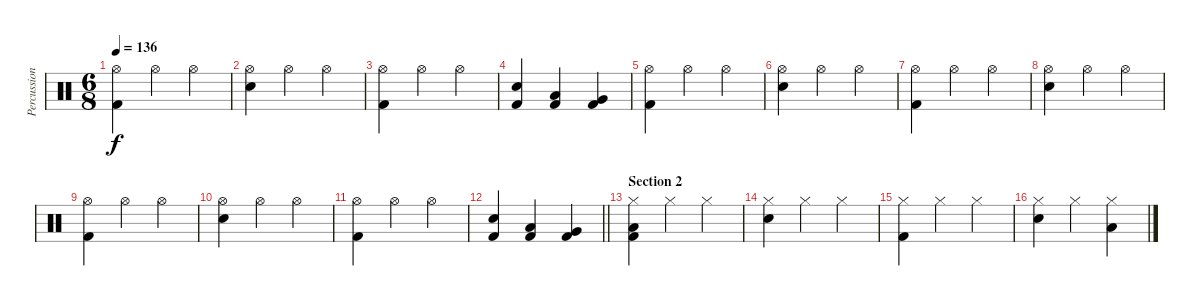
\track ("Percussion" "Percussion") {instrument percussion}
\staff {score}
\articulation defaults
\ts (6 8)
\tempo 136
\clef neutral
\ks c
("Hi-Hat (open)" "Kick (hit) 2").4{dy f} "Hi-Hat (open)".4 "Hi-Hat (open)".4 |
("Hi-Hat (open)" "Snare (hit) 2").4 "Hi-Hat (open)".4 "Hi-Hat (open)".4 |
("Hi-Hat (open)" "Kick (hit) 2").4 "Hi-Hat (open)".4 "Hi-Hat (open)".4 |
("Snare (hit) 2" "Kick (hit) 2").4 ("Low Tom (hit)" "Kick (hit) 2").4 ("Very Low Tom (hit)" "Kick (hit) 2").4 |
("Hi-Hat (open)" "Kick (hit) 2").4 "Hi-Hat (open)".4 "Hi-Hat (open)".4 |
("Hi-Hat (open)" "Snare (hit) 2").4 "Hi-Hat (open)".4 "Hi-Hat (open)".4 |
("Hi-Hat (open)" "Kick (hit) 2").4 "Hi-Hat (open)".4 "Hi-Hat (open)".4 |
("Hi-Hat (open)" "Snare (hit) 2").4 "Hi-Hat (open)".4 "Hi-Hat (open)".4 |
("Hi-Hat (open)" "Kick (hit) 2").4 "Hi-Hat (open)".4 "Hi-Hat (open)".4 |
("Hi-Hat (open)" "Snare (hit) 2").4 "Hi-Hat (open)".4 "Hi-Hat (open)".4 |
("Hi-Hat (open)" "Kick (hit) 2").4 "Hi-Hat (open)".4 "Hi-Hat (open)".4 |
\barLineRight lightlight
("Snare (hit) 2" "Kick (hit) 2").4 ("Low Tom (hit)" "Kick (hit) 2").4 ("Very Low Tom (hit)" "Kick (hit) 2").4 |
\section ("" "Section 2")
("Hi-Hat (closed)" "Low Tom (hit)" "Kick (hit) 2").4 "Hi-Hat (closed)".4 "Hi-Hat (closed)".4 |
("Hi-Hat (closed)" "Snare (hit) 2").4 "Hi-Hat (closed)".4 "Hi-Hat (closed)".4 |
("Hi-Hat (closed)" "Kick (hit) 2").4 "Hi-Hat (closed)".4 "Hi-Hat (closed)".4 |
("Hi-Hat (closed)" "Snare (hit) 2").4 "Hi-Hat (closed)".4 ("Hi-Hat (closed)" "Low Floor Tom (hit)").4
